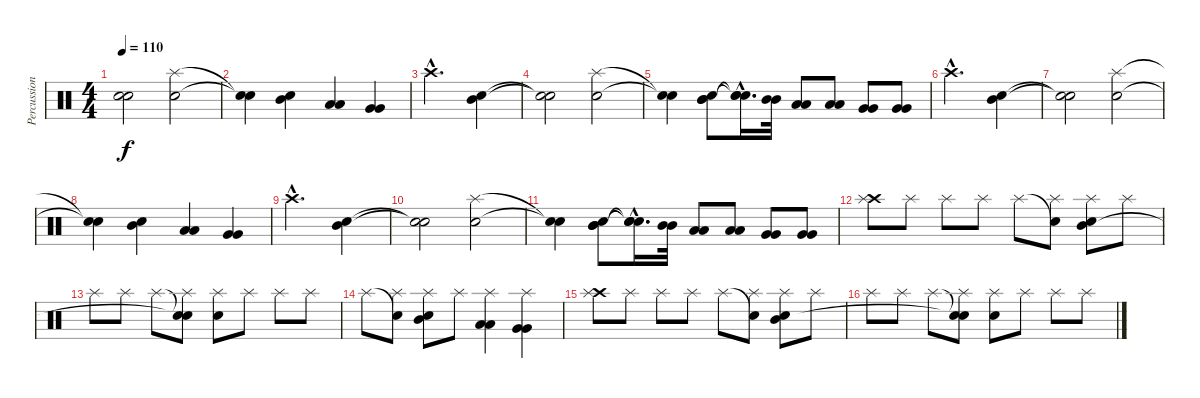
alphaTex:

\track ("Percussions" "Percussion") {instrument percussion}
\staff {score}
\articulation defaults
\ts (4 4)
\tempo 110
\clef neutral
\ks c
("Snare (hit)"{t} "Snare (hit)"{t}).2{dy f} ("Electric Snare (hit)" "Splash (hit)").2 |
("Snare (hit)"{t} "Snare (hit)"{t}).4 ("Electric Snare (hit)" "Mid Tom (hit)").4 ("Low Tom (hit)" "Low Tom (hit)").4 ("Very Low Tom (hit)" "Very Low Tom (hit)").4 |
"Crash high (hit)"{hac}.2{d} ("Electric Snare (hit)" "Mid Tom (hit)").4 |
("Snare (hit)"{t} "Snare (hit)"{t}).2 ("Electric Snare (hit)" "Splash (hit)").2 |
("Snare (hit)"{t} "Snare (hit)"{t}).4 ("Electric Snare (hit)" "Mid Tom (hit)" "Mid Tom (hit)").8 ("Snare (hit)"{hac t} "Snare (hit)"{hac t} "Snare (hit)"{hac t}).16{d} ("Mid Tom (hit)" "Mid Tom (hit)").32 ("Low Tom (hit)" "Low Tom (hit)").8 ("Low Tom (hit)" "Low Tom (hit)").8 ("Very Low Tom (hit)" "Very Low Tom (hit)").8 ("Very Low Tom (hit)" "Very Low Tom (hit)").8 |
"Crash high (hit)"{hac}.2{d} ("Electric Snare (hit)" "Mid Tom (hit)").4 |
("Snare (hit)"{t} "Snare (hit)"{t}).2 ("Electric Snare (hit)" "Splash (hit)").2 |
("Snare (hit)"{t} "Snare (hit)"{t}).4 ("Electric Snare (hit)" "Mid Tom (hit)").4 ("Low Tom (hit)" "Low Tom (hit)").4 ("Very Low Tom (hit)" "Very Low Tom (hit)").4 |
"Crash high (hit)"{hac}.2{d} ("Electric Snare (hit)" "Mid Tom (hit)").4 |
("Snare (hit)"{t} "Snare (hit)"{t}).2 ("Electric Snare (hit)" "Splash (hit)").2 |
("Snare (hit)"{t} "Snare (hit)"{t}).4 ("Electric Snare (hit)" "Mid Tom (hit)" "Mid Tom (hit)").8 ("Snare (hit)"{hac t} "Snare (hit)"{hac t} "Snare (hit)"{hac t}).16{d} ("Mid Tom (hit)" "Mid Tom (hit)").32 ("Low Tom (hit)" "Low Tom (hit)").8 ("Low Tom (hit)" "Low Tom (hit)").8 ("Very Low Tom (hit)" "Very Low Tom (hit)").8 ("Very Low Tom (hit)" "Very Low Tom (hit)").8 |
("Crash high (hit)" "Splash (hit)").8 "Splash (hit)".8 "Splash (hit)".8 "Splash (hit)".8 "Splash (hit)".8 ("Electric Snare (hit)"{t} "Splash (hit)").8 ("Electric Snare (hit)" "Mid Tom (hit)" "Splash (hit)").8 "Splash (hit)".8 |
"Splash (hit)".8 "Splash (hit)".8 "Splash (hit)".8 ("Snare (hit)"{t} "Snare (hit)"{t} "Splash (hit)").8 ("Electric Snare (hit)" "Splash (hit)").8 "Splash (hit)".8 "Splash (hit)".8 "Splash (hit)".8 |
"Splash (hit)".8 ("Snare (hit)"{t} "Splash (hit)").8 ("Electric Snare (hit)" "Mid Tom (hit)" "Splash (hit)").8 "Splash (hit)".8 ("Low Tom (hit)" "Low Tom (hit)" "Splash (hit)").4 ("Very Low Tom (hit)" "Very Low Tom (hit)" "Splash (hit)").4 |
("Crash high (hit)" "Splash (hit)").8 "Splash (hit)".8 "Splash (hit)".8 "Splash (hit)".8 "Splash (hit)".8 ("Electric Snare (hit)"{t} "Splash (hit)").8 ("Electric Snare (hit)" "Mid Tom (hit)" "Splash (hit)").8 "Splash (hit)".8 |
"Splash (hit)".8 "Splash (hit)".8 "Splash (hit)".8 ("Snare (hit)"{t} "Snare (hit)"{t} "Splash (hit)").8 ("Electric Snare (hit)" "Splash (hit)").8 "Splash (hit)".8 "Splash (hit)".8 "Splash (hit)".8
